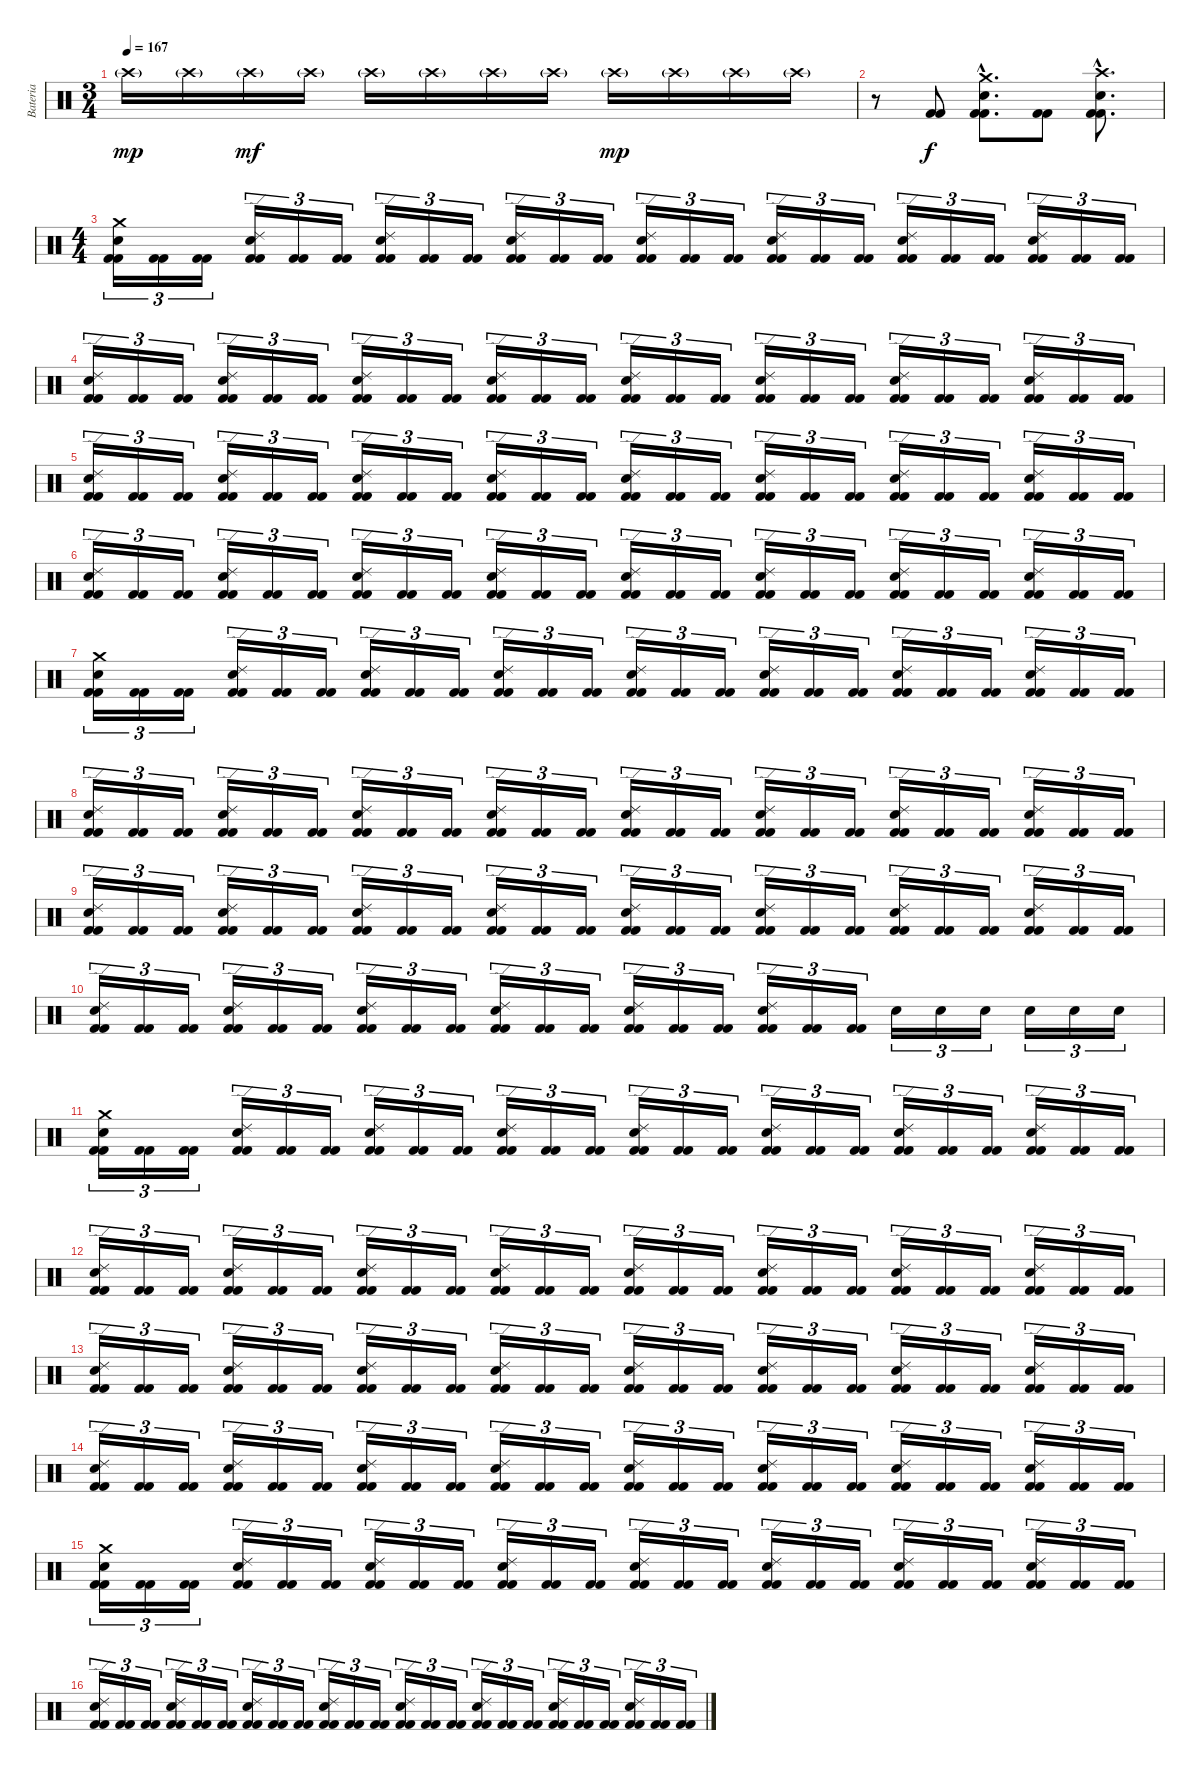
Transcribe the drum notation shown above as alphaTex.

\track ("Bateria" "Bateria") {instrument percussion}
\staff {score}
\articulation defaults
\ts (3 4)
\tempo 167
\clef neutral
\ks c "Crash high (hit)"{g}.16{dy mp} "Crash high (hit)"{g}.16 "Crash high (hit)"{g}.16{dy mf} "Crash high (hit)"{g}.16 "Crash high (hit)"{g}.16 "Crash high (hit)"{g}.16 "Crash high (hit)"{g}.16 "Crash high (hit)"{g}.16 "Crash high (hit)"{g}.16{dy mp} "Crash high (hit)"{g}.16 "Crash high (hit)"{g}.16 "Crash high (hit)"{g}.16
|
r.8 ("Kick (hit) 2" "Kick (hit) 2").8{dy f} ("Kick (hit) 2"{hac} "Kick (hit) 2"{hac} "Snare (hit) 2"{hac} "Crash medium (hit)"{hac}).8{d} ("Kick (hit) 2" "Kick (hit) 2").8 ("Kick (hit) 2"{hac} "Kick (hit) 2"{hac} "Snare (hit) 2"{hac} "Crash high (hit)"{hac}).8{d} |
\ts (4 4)
("Kick (hit) 2" "Kick (hit) 2" "Snare (hit) 2" "Crash medium (hit)").16{tu (3 2)} ("Kick (hit) 2" "Kick (hit) 2").16{tu (3 2)} ("Kick (hit) 2" "Kick (hit) 2").16{tu (3 2)} ("Kick (hit) 2" "Kick (hit) 2" "Snare (hit) 2" "Ride (edge) 2").16{tu (3 2)} ("Kick (hit) 2" "Kick (hit) 2").16{tu (3 2)} ("Kick (hit) 2" "Kick (hit) 2").16{tu (3 2)} ("Kick (hit) 2" "Kick (hit) 2" "Snare (hit) 2" "Ride (edge) 2").16{tu (3 2)} ("Kick (hit) 2" "Kick (hit) 2").16{tu (3 2)} ("Kick (hit) 2" "Kick (hit) 2").16{tu (3 2)} ("Kick (hit) 2" "Kick (hit) 2" "Snare (hit) 2" "Ride (edge) 2").16{tu (3 2)} ("Kick (hit) 2" "Kick (hit) 2").16{tu (3 2)} ("Kick (hit) 2" "Kick (hit) 2").16{tu (3 2)} ("Kick (hit) 2" "Kick (hit) 2" "Snare (hit) 2" "Ride (edge) 2").16{tu (3 2)} ("Kick (hit) 2" "Kick (hit) 2").16{tu (3 2)} ("Kick (hit) 2" "Kick (hit) 2").16{tu (3 2)} ("Kick (hit) 2" "Kick (hit) 2" "Snare (hit) 2" "Ride (edge) 2").16{tu (3 2)} ("Kick (hit) 2" "Kick (hit) 2").16{tu (3 2)} ("Kick (hit) 2" "Kick (hit) 2").16{tu (3 2)} ("Kick (hit) 2" "Kick (hit) 2" "Snare (hit) 2" "Ride (edge) 2").16{tu (3 2)} ("Kick (hit) 2" "Kick (hit) 2").16{tu (3 2)} ("Kick (hit) 2" "Kick (hit) 2").16{tu (3 2)} ("Kick (hit) 2" "Kick (hit) 2" "Snare (hit) 2" "Ride (edge) 2").16{tu (3 2)} ("Kick (hit) 2" "Kick (hit) 2").16{tu (3 2)} ("Kick (hit) 2" "Kick (hit) 2").16{tu (3 2)} |
("Kick (hit) 2" "Kick (hit) 2" "Snare (hit) 2" "Ride (edge) 2").16{tu (3 2)} ("Kick (hit) 2" "Kick (hit) 2").16{tu (3 2)} ("Kick (hit) 2" "Kick (hit) 2").16{tu (3 2)} ("Kick (hit) 2" "Kick (hit) 2" "Snare (hit) 2" "Ride (edge) 2").16{tu (3 2)} ("Kick (hit) 2" "Kick (hit) 2").16{tu (3 2)} ("Kick (hit) 2" "Kick (hit) 2").16{tu (3 2)} ("Kick (hit) 2" "Kick (hit) 2" "Snare (hit) 2" "Ride (edge) 2").16{tu (3 2)} ("Kick (hit) 2" "Kick (hit) 2").16{tu (3 2)} ("Kick (hit) 2" "Kick (hit) 2").16{tu (3 2)} ("Kick (hit) 2" "Kick (hit) 2" "Snare (hit) 2" "Ride (edge) 2").16{tu (3 2)} ("Kick (hit) 2" "Kick (hit) 2").16{tu (3 2)} ("Kick (hit) 2" "Kick (hit) 2").16{tu (3 2)} ("Kick (hit) 2" "Kick (hit) 2" "Snare (hit) 2" "Ride (edge) 2").16{tu (3 2)} ("Kick (hit) 2" "Kick (hit) 2").16{tu (3 2)} ("Kick (hit) 2" "Kick (hit) 2").16{tu (3 2)} ("Kick (hit) 2" "Kick (hit) 2" "Snare (hit) 2" "Ride (edge) 2").16{tu (3 2)} ("Kick (hit) 2" "Kick (hit) 2").16{tu (3 2)} ("Kick (hit) 2" "Kick (hit) 2").16{tu (3 2)} ("Kick (hit) 2" "Kick (hit) 2" "Snare (hit) 2" "Ride (edge) 2").16{tu (3 2)} ("Kick (hit) 2" "Kick (hit) 2").16{tu (3 2)} ("Kick (hit) 2" "Kick (hit) 2").16{tu (3 2)} ("Kick (hit) 2" "Kick (hit) 2" "Snare (hit) 2" "Ride (edge) 2").16{tu (3 2)} ("Kick (hit) 2" "Kick (hit) 2").16{tu (3 2)} ("Kick (hit) 2" "Kick (hit) 2").16{tu (3 2)} |
("Kick (hit) 2" "Kick (hit) 2" "Snare (hit) 2" "Ride (edge) 2").16{tu (3 2)} ("Kick (hit) 2" "Kick (hit) 2").16{tu (3 2)} ("Kick (hit) 2" "Kick (hit) 2").16{tu (3 2)} ("Kick (hit) 2" "Kick (hit) 2" "Snare (hit) 2" "Ride (edge) 2").16{tu (3 2)} ("Kick (hit) 2" "Kick (hit) 2").16{tu (3 2)} ("Kick (hit) 2" "Kick (hit) 2").16{tu (3 2)} ("Kick (hit) 2" "Kick (hit) 2" "Snare (hit) 2" "Ride (edge) 2").16{tu (3 2)} ("Kick (hit) 2" "Kick (hit) 2").16{tu (3 2)} ("Kick (hit) 2" "Kick (hit) 2").16{tu (3 2)} ("Kick (hit) 2" "Kick (hit) 2" "Snare (hit) 2" "Ride (edge) 2").16{tu (3 2)} ("Kick (hit) 2" "Kick (hit) 2").16{tu (3 2)} ("Kick (hit) 2" "Kick (hit) 2").16{tu (3 2)} ("Kick (hit) 2" "Kick (hit) 2" "Snare (hit) 2" "Ride (edge) 2").16{tu (3 2)} ("Kick (hit) 2" "Kick (hit) 2").16{tu (3 2)} ("Kick (hit) 2" "Kick (hit) 2").16{tu (3 2)} ("Kick (hit) 2" "Kick (hit) 2" "Snare (hit) 2" "Ride (edge) 2").16{tu (3 2)} ("Kick (hit) 2" "Kick (hit) 2").16{tu (3 2)} ("Kick (hit) 2" "Kick (hit) 2").16{tu (3 2)} ("Kick (hit) 2" "Kick (hit) 2" "Snare (hit) 2" "Ride (edge) 2").16{tu (3 2)} ("Kick (hit) 2" "Kick (hit) 2").16{tu (3 2)} ("Kick (hit) 2" "Kick (hit) 2").16{tu (3 2)} ("Kick (hit) 2" "Kick (hit) 2" "Snare (hit) 2" "Ride (edge) 2").16{tu (3 2)} ("Kick (hit) 2" "Kick (hit) 2").16{tu (3 2)} ("Kick (hit) 2" "Kick (hit) 2").16{tu (3 2)} |
("Kick (hit) 2" "Kick (hit) 2" "Snare (hit) 2" "Ride (edge) 2").16{tu (3 2)} ("Kick (hit) 2" "Kick (hit) 2").16{tu (3 2)} ("Kick (hit) 2" "Kick (hit) 2").16{tu (3 2)} ("Kick (hit) 2" "Kick (hit) 2" "Snare (hit) 2" "Ride (edge) 2").16{tu (3 2)} ("Kick (hit) 2" "Kick (hit) 2").16{tu (3 2)} ("Kick (hit) 2" "Kick (hit) 2").16{tu (3 2)} ("Kick (hit) 2" "Kick (hit) 2" "Snare (hit) 2" "Ride (edge) 2").16{tu (3 2)} ("Kick (hit) 2" "Kick (hit) 2").16{tu (3 2)} ("Kick (hit) 2" "Kick (hit) 2").16{tu (3 2)} ("Kick (hit) 2" "Kick (hit) 2" "Snare (hit) 2" "Ride (edge) 2").16{tu (3 2)} ("Kick (hit) 2" "Kick (hit) 2").16{tu (3 2)} ("Kick (hit) 2" "Kick (hit) 2").16{tu (3 2)} ("Kick (hit) 2" "Kick (hit) 2" "Snare (hit) 2" "Ride (edge) 2").16{tu (3 2)} ("Kick (hit) 2" "Kick (hit) 2").16{tu (3 2)} ("Kick (hit) 2" "Kick (hit) 2").16{tu (3 2)} ("Kick (hit) 2" "Kick (hit) 2" "Snare (hit) 2" "Ride (edge) 2").16{tu (3 2)} ("Kick (hit) 2" "Kick (hit) 2").16{tu (3 2)} ("Kick (hit) 2" "Kick (hit) 2").16{tu (3 2)} ("Kick (hit) 2" "Kick (hit) 2" "Snare (hit) 2" "Ride (edge) 2").16{tu (3 2)} ("Kick (hit) 2" "Kick (hit) 2").16{tu (3 2)} ("Kick (hit) 2" "Kick (hit) 2").16{tu (3 2)} ("Kick (hit) 2" "Kick (hit) 2" "Snare (hit) 2" "Ride (edge) 2").16{tu (3 2)} ("Kick (hit) 2" "Kick (hit) 2").16{tu (3 2)} ("Kick (hit) 2" "Kick (hit) 2").16{tu (3 2)} |
("Kick (hit) 2" "Kick (hit) 2" "Snare (hit) 2" "Crash medium (hit)").16{tu (3 2)} ("Kick (hit) 2" "Kick (hit) 2").16{tu (3 2)} ("Kick (hit) 2" "Kick (hit) 2").16{tu (3 2)} ("Kick (hit) 2" "Kick (hit) 2" "Snare (hit) 2" "Ride (edge) 2").16{tu (3 2)} ("Kick (hit) 2" "Kick (hit) 2").16{tu (3 2)} ("Kick (hit) 2" "Kick (hit) 2").16{tu (3 2)} ("Kick (hit) 2" "Kick (hit) 2" "Snare (hit) 2" "Ride (edge) 2").16{tu (3 2)} ("Kick (hit) 2" "Kick (hit) 2").16{tu (3 2)} ("Kick (hit) 2" "Kick (hit) 2").16{tu (3 2)} ("Kick (hit) 2" "Kick (hit) 2" "Snare (hit) 2" "Ride (edge) 2").16{tu (3 2)} ("Kick (hit) 2" "Kick (hit) 2").16{tu (3 2)} ("Kick (hit) 2" "Kick (hit) 2").16{tu (3 2)} ("Kick (hit) 2" "Kick (hit) 2" "Snare (hit) 2" "Ride (edge) 2").16{tu (3 2)} ("Kick (hit) 2" "Kick (hit) 2").16{tu (3 2)} ("Kick (hit) 2" "Kick (hit) 2").16{tu (3 2)} ("Kick (hit) 2" "Kick (hit) 2" "Snare (hit) 2" "Ride (edge) 2").16{tu (3 2)} ("Kick (hit) 2" "Kick (hit) 2").16{tu (3 2)} ("Kick (hit) 2" "Kick (hit) 2").16{tu (3 2)} ("Kick (hit) 2" "Kick (hit) 2" "Snare (hit) 2" "Ride (edge) 2").16{tu (3 2)} ("Kick (hit) 2" "Kick (hit) 2").16{tu (3 2)} ("Kick (hit) 2" "Kick (hit) 2").16{tu (3 2)} ("Kick (hit) 2" "Kick (hit) 2" "Snare (hit) 2" "Ride (edge) 2").16{tu (3 2)} ("Kick (hit) 2" "Kick (hit) 2").16{tu (3 2)} ("Kick (hit) 2" "Kick (hit) 2").16{tu (3 2)} |
("Kick (hit) 2" "Kick (hit) 2" "Snare (hit) 2" "Ride (edge) 2").16{tu (3 2)} ("Kick (hit) 2" "Kick (hit) 2").16{tu (3 2)} ("Kick (hit) 2" "Kick (hit) 2").16{tu (3 2)} ("Kick (hit) 2" "Kick (hit) 2" "Snare (hit) 2" "Ride (edge) 2").16{tu (3 2)} ("Kick (hit) 2" "Kick (hit) 2").16{tu (3 2)} ("Kick (hit) 2" "Kick (hit) 2").16{tu (3 2)} ("Kick (hit) 2" "Kick (hit) 2" "Snare (hit) 2" "Ride (edge) 2").16{tu (3 2)} ("Kick (hit) 2" "Kick (hit) 2").16{tu (3 2)} ("Kick (hit) 2" "Kick (hit) 2").16{tu (3 2)} ("Kick (hit) 2" "Kick (hit) 2" "Snare (hit) 2" "Ride (edge) 2").16{tu (3 2)} ("Kick (hit) 2" "Kick (hit) 2").16{tu (3 2)} ("Kick (hit) 2" "Kick (hit) 2").16{tu (3 2)} ("Kick (hit) 2" "Kick (hit) 2" "Snare (hit) 2" "Ride (edge) 2").16{tu (3 2)} ("Kick (hit) 2" "Kick (hit) 2").16{tu (3 2)} ("Kick (hit) 2" "Kick (hit) 2").16{tu (3 2)} ("Kick (hit) 2" "Kick (hit) 2" "Snare (hit) 2" "Ride (edge) 2").16{tu (3 2)} ("Kick (hit) 2" "Kick (hit) 2").16{tu (3 2)} ("Kick (hit) 2" "Kick (hit) 2").16{tu (3 2)} ("Kick (hit) 2" "Kick (hit) 2" "Snare (hit) 2" "Ride (edge) 2").16{tu (3 2)} ("Kick (hit) 2" "Kick (hit) 2").16{tu (3 2)} ("Kick (hit) 2" "Kick (hit) 2").16{tu (3 2)} ("Kick (hit) 2" "Kick (hit) 2" "Snare (hit) 2" "Ride (edge) 2").16{tu (3 2)} ("Kick (hit) 2" "Kick (hit) 2").16{tu (3 2)} ("Kick (hit) 2" "Kick (hit) 2").16{tu (3 2)} |
("Kick (hit) 2" "Kick (hit) 2" "Snare (hit) 2" "Ride (edge) 2").16{tu (3 2)} ("Kick (hit) 2" "Kick (hit) 2").16{tu (3 2)} ("Kick (hit) 2" "Kick (hit) 2").16{tu (3 2)} ("Kick (hit) 2" "Kick (hit) 2" "Snare (hit) 2" "Ride (edge) 2").16{tu (3 2)} ("Kick (hit) 2" "Kick (hit) 2").16{tu (3 2)} ("Kick (hit) 2" "Kick (hit) 2").16{tu (3 2)} ("Kick (hit) 2" "Kick (hit) 2" "Snare (hit) 2" "Ride (edge) 2").16{tu (3 2)} ("Kick (hit) 2" "Kick (hit) 2").16{tu (3 2)} ("Kick (hit) 2" "Kick (hit) 2").16{tu (3 2)} ("Kick (hit) 2" "Kick (hit) 2" "Snare (hit) 2" "Ride (edge) 2").16{tu (3 2)} ("Kick (hit) 2" "Kick (hit) 2").16{tu (3 2)} ("Kick (hit) 2" "Kick (hit) 2").16{tu (3 2)} ("Kick (hit) 2" "Kick (hit) 2" "Snare (hit) 2" "Ride (edge) 2").16{tu (3 2)} ("Kick (hit) 2" "Kick (hit) 2").16{tu (3 2)} ("Kick (hit) 2" "Kick (hit) 2").16{tu (3 2)} ("Kick (hit) 2" "Kick (hit) 2" "Snare (hit) 2" "Ride (edge) 2").16{tu (3 2)} ("Kick (hit) 2" "Kick (hit) 2").16{tu (3 2)} ("Kick (hit) 2" "Kick (hit) 2").16{tu (3 2)} ("Kick (hit) 2" "Kick (hit) 2" "Snare (hit) 2" "Ride (edge) 2").16{tu (3 2)} ("Kick (hit) 2" "Kick (hit) 2").16{tu (3 2)} ("Kick (hit) 2" "Kick (hit) 2").16{tu (3 2)} ("Kick (hit) 2" "Kick (hit) 2" "Snare (hit) 2" "Ride (edge) 2").16{tu (3 2)} ("Kick (hit) 2" "Kick (hit) 2").16{tu (3 2)} ("Kick (hit) 2" "Kick (hit) 2").16{tu (3 2)} |
("Kick (hit) 2" "Kick (hit) 2" "Snare (hit) 2" "Ride (edge) 2").16{tu (3 2)} ("Kick (hit) 2" "Kick (hit) 2").16{tu (3 2)} ("Kick (hit) 2" "Kick (hit) 2").16{tu (3 2)} ("Kick (hit) 2" "Kick (hit) 2" "Snare (hit) 2" "Ride (edge) 2").16{tu (3 2)} ("Kick (hit) 2" "Kick (hit) 2").16{tu (3 2)} ("Kick (hit) 2" "Kick (hit) 2").16{tu (3 2)} ("Kick (hit) 2" "Kick (hit) 2" "Snare (hit) 2" "Ride (edge) 2").16{tu (3 2)} ("Kick (hit) 2" "Kick (hit) 2").16{tu (3 2)} ("Kick (hit) 2" "Kick (hit) 2").16{tu (3 2)} ("Kick (hit) 2" "Kick (hit) 2" "Snare (hit) 2" "Ride (edge) 2").16{tu (3 2)} ("Kick (hit) 2" "Kick (hit) 2").16{tu (3 2)} ("Kick (hit) 2" "Kick (hit) 2").16{tu (3 2)} ("Kick (hit) 2" "Kick (hit) 2" "Snare (hit) 2" "Ride (edge) 2").16{tu (3 2)} ("Kick (hit) 2" "Kick (hit) 2").16{tu (3 2)} ("Kick (hit) 2" "Kick (hit) 2").16{tu (3 2)} ("Kick (hit) 2" "Kick (hit) 2" "Snare (hit) 2" "Ride (edge) 2").16{tu (3 2)} ("Kick (hit) 2" "Kick (hit) 2").16{tu (3 2)} ("Kick (hit) 2" "Kick (hit) 2").16{tu (3 2)} "Snare (hit) 2".16{tu (3 2)} "Snare (hit) 2".16{tu (3 2)} "Snare (hit) 2".16{tu (3 2)} "Snare (hit) 2".16{tu (3 2)} "Snare (hit) 2".16{tu (3 2)} "Snare (hit) 2".16{tu (3 2)} |
("Kick (hit) 2" "Kick (hit) 2" "Snare (hit) 2" "Crash medium (hit)").16{tu (3 2)} ("Kick (hit) 2" "Kick (hit) 2").16{tu (3 2)} ("Kick (hit) 2" "Kick (hit) 2").16{tu (3 2)} ("Kick (hit) 2" "Kick (hit) 2" "Snare (hit) 2" "Ride (edge) 2").16{tu (3 2)} ("Kick (hit) 2" "Kick (hit) 2").16{tu (3 2)} ("Kick (hit) 2" "Kick (hit) 2").16{tu (3 2)} ("Kick (hit) 2" "Kick (hit) 2" "Snare (hit) 2" "Ride (edge) 2").16{tu (3 2)} ("Kick (hit) 2" "Kick (hit) 2").16{tu (3 2)} ("Kick (hit) 2" "Kick (hit) 2").16{tu (3 2)} ("Kick (hit) 2" "Kick (hit) 2" "Snare (hit) 2" "Ride (edge) 2").16{tu (3 2)} ("Kick (hit) 2" "Kick (hit) 2").16{tu (3 2)} ("Kick (hit) 2" "Kick (hit) 2").16{tu (3 2)} ("Kick (hit) 2" "Kick (hit) 2" "Snare (hit) 2" "Ride (edge) 2").16{tu (3 2)} ("Kick (hit) 2" "Kick (hit) 2").16{tu (3 2)} ("Kick (hit) 2" "Kick (hit) 2").16{tu (3 2)} ("Kick (hit) 2" "Kick (hit) 2" "Snare (hit) 2" "Ride (edge) 2").16{tu (3 2)} ("Kick (hit) 2" "Kick (hit) 2").16{tu (3 2)} ("Kick (hit) 2" "Kick (hit) 2").16{tu (3 2)} ("Kick (hit) 2" "Kick (hit) 2" "Snare (hit) 2" "Ride (edge) 2").16{tu (3 2)} ("Kick (hit) 2" "Kick (hit) 2").16{tu (3 2)} ("Kick (hit) 2" "Kick (hit) 2").16{tu (3 2)} ("Kick (hit) 2" "Kick (hit) 2" "Snare (hit) 2" "Ride (edge) 2").16{tu (3 2)} ("Kick (hit) 2" "Kick (hit) 2").16{tu (3 2)} ("Kick (hit) 2" "Kick (hit) 2").16{tu (3 2)} |
("Kick (hit) 2" "Kick (hit) 2" "Snare (hit) 2" "Ride (edge) 2").16{tu (3 2)} ("Kick (hit) 2" "Kick (hit) 2").16{tu (3 2)} ("Kick (hit) 2" "Kick (hit) 2").16{tu (3 2)} ("Kick (hit) 2" "Kick (hit) 2" "Snare (hit) 2" "Ride (edge) 2").16{tu (3 2)} ("Kick (hit) 2" "Kick (hit) 2").16{tu (3 2)} ("Kick (hit) 2" "Kick (hit) 2").16{tu (3 2)} ("Kick (hit) 2" "Kick (hit) 2" "Snare (hit) 2" "Ride (edge) 2").16{tu (3 2)} ("Kick (hit) 2" "Kick (hit) 2").16{tu (3 2)} ("Kick (hit) 2" "Kick (hit) 2").16{tu (3 2)} ("Kick (hit) 2" "Kick (hit) 2" "Snare (hit) 2" "Ride (edge) 2").16{tu (3 2)} ("Kick (hit) 2" "Kick (hit) 2").16{tu (3 2)} ("Kick (hit) 2" "Kick (hit) 2").16{tu (3 2)} ("Kick (hit) 2" "Kick (hit) 2" "Snare (hit) 2" "Ride (edge) 2").16{tu (3 2)} ("Kick (hit) 2" "Kick (hit) 2").16{tu (3 2)} ("Kick (hit) 2" "Kick (hit) 2").16{tu (3 2)} ("Kick (hit) 2" "Kick (hit) 2" "Snare (hit) 2" "Ride (edge) 2").16{tu (3 2)} ("Kick (hit) 2" "Kick (hit) 2").16{tu (3 2)} ("Kick (hit) 2" "Kick (hit) 2").16{tu (3 2)} ("Kick (hit) 2" "Kick (hit) 2" "Snare (hit) 2" "Ride (edge) 2").16{tu (3 2)} ("Kick (hit) 2" "Kick (hit) 2").16{tu (3 2)} ("Kick (hit) 2" "Kick (hit) 2").16{tu (3 2)} ("Kick (hit) 2" "Kick (hit) 2" "Snare (hit) 2" "Ride (edge) 2").16{tu (3 2)} ("Kick (hit) 2" "Kick (hit) 2").16{tu (3 2)} ("Kick (hit) 2" "Kick (hit) 2").16{tu (3 2)} |
("Kick (hit) 2" "Kick (hit) 2" "Snare (hit) 2" "Ride (edge) 2").16{tu (3 2)} ("Kick (hit) 2" "Kick (hit) 2").16{tu (3 2)} ("Kick (hit) 2" "Kick (hit) 2").16{tu (3 2)} ("Kick (hit) 2" "Kick (hit) 2" "Snare (hit) 2" "Ride (edge) 2").16{tu (3 2)} ("Kick (hit) 2" "Kick (hit) 2").16{tu (3 2)} ("Kick (hit) 2" "Kick (hit) 2").16{tu (3 2)} ("Kick (hit) 2" "Kick (hit) 2" "Snare (hit) 2" "Ride (edge) 2").16{tu (3 2)} ("Kick (hit) 2" "Kick (hit) 2").16{tu (3 2)} ("Kick (hit) 2" "Kick (hit) 2").16{tu (3 2)} ("Kick (hit) 2" "Kick (hit) 2" "Snare (hit) 2" "Ride (edge) 2").16{tu (3 2)} ("Kick (hit) 2" "Kick (hit) 2").16{tu (3 2)} ("Kick (hit) 2" "Kick (hit) 2").16{tu (3 2)} ("Kick (hit) 2" "Kick (hit) 2" "Snare (hit) 2" "Ride (edge) 2").16{tu (3 2)} ("Kick (hit) 2" "Kick (hit) 2").16{tu (3 2)} ("Kick (hit) 2" "Kick (hit) 2").16{tu (3 2)} ("Kick (hit) 2" "Kick (hit) 2" "Snare (hit) 2" "Ride (edge) 2").16{tu (3 2)} ("Kick (hit) 2" "Kick (hit) 2").16{tu (3 2)} ("Kick (hit) 2" "Kick (hit) 2").16{tu (3 2)} ("Kick (hit) 2" "Kick (hit) 2" "Snare (hit) 2" "Ride (edge) 2").16{tu (3 2)} ("Kick (hit) 2" "Kick (hit) 2").16{tu (3 2)} ("Kick (hit) 2" "Kick (hit) 2").16{tu (3 2)} ("Kick (hit) 2" "Kick (hit) 2" "Snare (hit) 2" "Ride (edge) 2").16{tu (3 2)} ("Kick (hit) 2" "Kick (hit) 2").16{tu (3 2)} ("Kick (hit) 2" "Kick (hit) 2").16{tu (3 2)} |
("Kick (hit) 2" "Kick (hit) 2" "Snare (hit) 2" "Ride (edge) 2").16{tu (3 2)} ("Kick (hit) 2" "Kick (hit) 2").16{tu (3 2)} ("Kick (hit) 2" "Kick (hit) 2").16{tu (3 2)} ("Kick (hit) 2" "Kick (hit) 2" "Snare (hit) 2" "Ride (edge) 2").16{tu (3 2)} ("Kick (hit) 2" "Kick (hit) 2").16{tu (3 2)} ("Kick (hit) 2" "Kick (hit) 2").16{tu (3 2)} ("Kick (hit) 2" "Kick (hit) 2" "Snare (hit) 2" "Ride (edge) 2").16{tu (3 2)} ("Kick (hit) 2" "Kick (hit) 2").16{tu (3 2)} ("Kick (hit) 2" "Kick (hit) 2").16{tu (3 2)} ("Kick (hit) 2" "Kick (hit) 2" "Snare (hit) 2" "Ride (edge) 2").16{tu (3 2)} ("Kick (hit) 2" "Kick (hit) 2").16{tu (3 2)} ("Kick (hit) 2" "Kick (hit) 2").16{tu (3 2)} ("Kick (hit) 2" "Kick (hit) 2" "Snare (hit) 2" "Ride (edge) 2").16{tu (3 2)} ("Kick (hit) 2" "Kick (hit) 2").16{tu (3 2)} ("Kick (hit) 2" "Kick (hit) 2").16{tu (3 2)} ("Kick (hit) 2" "Kick (hit) 2" "Snare (hit) 2" "Ride (edge) 2").16{tu (3 2)} ("Kick (hit) 2" "Kick (hit) 2").16{tu (3 2)} ("Kick (hit) 2" "Kick (hit) 2").16{tu (3 2)} ("Kick (hit) 2" "Kick (hit) 2" "Snare (hit) 2" "Ride (edge) 2").16{tu (3 2)} ("Kick (hit) 2" "Kick (hit) 2").16{tu (3 2)} ("Kick (hit) 2" "Kick (hit) 2").16{tu (3 2)} ("Kick (hit) 2" "Kick (hit) 2" "Snare (hit) 2" "Ride (edge) 2").16{tu (3 2)} ("Kick (hit) 2" "Kick (hit) 2").16{tu (3 2)} ("Kick (hit) 2" "Kick (hit) 2").16{tu (3 2)} |
("Kick (hit) 2" "Kick (hit) 2" "Snare (hit) 2" "Crash medium (hit)").16{tu (3 2)} ("Kick (hit) 2" "Kick (hit) 2").16{tu (3 2)} ("Kick (hit) 2" "Kick (hit) 2").16{tu (3 2)} ("Kick (hit) 2" "Kick (hit) 2" "Snare (hit) 2" "Ride (edge) 2").16{tu (3 2)} ("Kick (hit) 2" "Kick (hit) 2").16{tu (3 2)} ("Kick (hit) 2" "Kick (hit) 2").16{tu (3 2)} ("Kick (hit) 2" "Kick (hit) 2" "Snare (hit) 2" "Ride (edge) 2").16{tu (3 2)} ("Kick (hit) 2" "Kick (hit) 2").16{tu (3 2)} ("Kick (hit) 2" "Kick (hit) 2").16{tu (3 2)} ("Kick (hit) 2" "Kick (hit) 2" "Snare (hit) 2" "Ride (edge) 2").16{tu (3 2)} ("Kick (hit) 2" "Kick (hit) 2").16{tu (3 2)} ("Kick (hit) 2" "Kick (hit) 2").16{tu (3 2)} ("Kick (hit) 2" "Kick (hit) 2" "Snare (hit) 2" "Ride (edge) 2").16{tu (3 2)} ("Kick (hit) 2" "Kick (hit) 2").16{tu (3 2)} ("Kick (hit) 2" "Kick (hit) 2").16{tu (3 2)} ("Kick (hit) 2" "Kick (hit) 2" "Snare (hit) 2" "Ride (edge) 2").16{tu (3 2)} ("Kick (hit) 2" "Kick (hit) 2").16{tu (3 2)} ("Kick (hit) 2" "Kick (hit) 2").16{tu (3 2)} ("Kick (hit) 2" "Kick (hit) 2" "Snare (hit) 2" "Ride (edge) 2").16{tu (3 2)} ("Kick (hit) 2" "Kick (hit) 2").16{tu (3 2)} ("Kick (hit) 2" "Kick (hit) 2").16{tu (3 2)} ("Kick (hit) 2" "Kick (hit) 2" "Snare (hit) 2" "Ride (edge) 2").16{tu (3 2)} ("Kick (hit) 2" "Kick (hit) 2").16{tu (3 2)} ("Kick (hit) 2" "Kick (hit) 2").16{tu (3 2)} |
("Kick (hit) 2" "Kick (hit) 2" "Snare (hit) 2" "Ride (edge) 2").16{tu (3 2)} ("Kick (hit) 2" "Kick (hit) 2").16{tu (3 2)} ("Kick (hit) 2" "Kick (hit) 2").16{tu (3 2)} ("Kick (hit) 2" "Kick (hit) 2" "Snare (hit) 2" "Ride (edge) 2").16{tu (3 2)} ("Kick (hit) 2" "Kick (hit) 2").16{tu (3 2)} ("Kick (hit) 2" "Kick (hit) 2").16{tu (3 2)} ("Kick (hit) 2" "Kick (hit) 2" "Snare (hit) 2" "Ride (edge) 2").16{tu (3 2)} ("Kick (hit) 2" "Kick (hit) 2").16{tu (3 2)} ("Kick (hit) 2" "Kick (hit) 2").16{tu (3 2)} ("Kick (hit) 2" "Kick (hit) 2" "Snare (hit) 2" "Ride (edge) 2").16{tu (3 2)} ("Kick (hit) 2" "Kick (hit) 2").16{tu (3 2)} ("Kick (hit) 2" "Kick (hit) 2").16{tu (3 2)} ("Kick (hit) 2" "Kick (hit) 2" "Snare (hit) 2" "Ride (edge) 2").16{tu (3 2)} ("Kick (hit) 2" "Kick (hit) 2").16{tu (3 2)} ("Kick (hit) 2" "Kick (hit) 2").16{tu (3 2)} ("Kick (hit) 2" "Kick (hit) 2" "Snare (hit) 2" "Ride (edge) 2").16{tu (3 2)} ("Kick (hit) 2" "Kick (hit) 2").16{tu (3 2)} ("Kick (hit) 2" "Kick (hit) 2").16{tu (3 2)} ("Kick (hit) 2" "Kick (hit) 2" "Snare (hit) 2" "Ride (edge) 2").16{tu (3 2)} ("Kick (hit) 2" "Kick (hit) 2").16{tu (3 2)} ("Kick (hit) 2" "Kick (hit) 2").16{tu (3 2)} ("Kick (hit) 2" "Kick (hit) 2" "Snare (hit) 2" "Ride (edge) 2").16{tu (3 2)} ("Kick (hit) 2" "Kick (hit) 2").16{tu (3 2)} ("Kick (hit) 2" "Kick (hit) 2").16{tu (3 2)}
